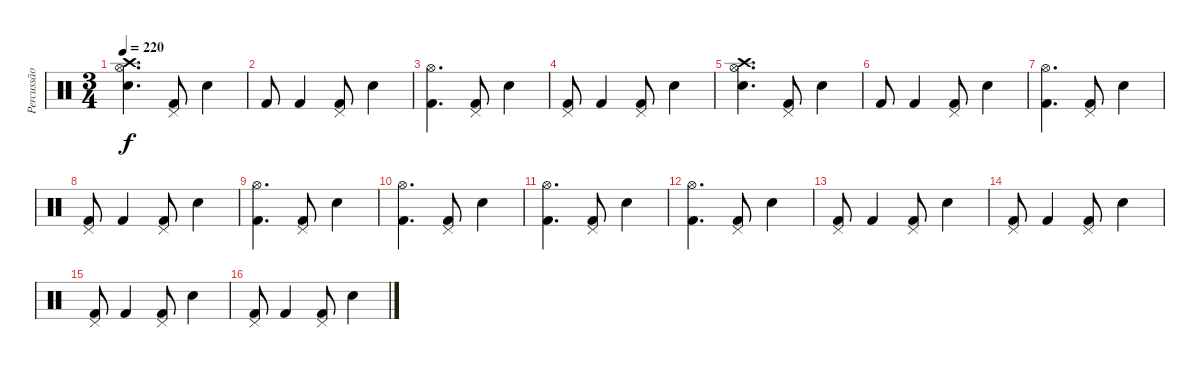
\track ("Percussão" "Percussão") {instrument percussion}
\staff {score}
\articulation defaults
\ts (3 4)
\tempo 220
\clef neutral
\ks c
("Hi-Hat (open)" "Snare (hit) 2" "Crash high (hit)").4{d dy f} ("Pedal Hi-Hat (hit)" "Kick (hit) 2").8 "Snare (hit) 2".4 |
"Kick (hit) 2".8 "Kick (hit) 2".4 ("Pedal Hi-Hat (hit)" "Kick (hit) 2").8 "Snare (hit) 2".4 |
("Hi-Hat (open)" "Kick (hit) 2").4{d} ("Pedal Hi-Hat (hit)" "Kick (hit) 2").8 "Snare (hit) 2".4 |
("Pedal Hi-Hat (hit)" "Kick (hit) 2").8 "Kick (hit) 2".4 ("Pedal Hi-Hat (hit)" "Kick (hit) 2").8 "Snare (hit) 2".4 |
("Hi-Hat (open)" "Snare (hit) 2" "Crash high (hit)").4{d} ("Pedal Hi-Hat (hit)" "Kick (hit) 2").8 "Snare (hit) 2".4 |
"Kick (hit) 2".8 "Kick (hit) 2".4 ("Pedal Hi-Hat (hit)" "Kick (hit) 2").8 "Snare (hit) 2".4 |
("Hi-Hat (open)" "Kick (hit) 2").4{d} ("Pedal Hi-Hat (hit)" "Kick (hit) 2").8 "Snare (hit) 2".4 |
("Pedal Hi-Hat (hit)" "Kick (hit) 2").8 "Kick (hit) 2".4 ("Pedal Hi-Hat (hit)" "Kick (hit) 2").8 "Snare (hit) 2".4 |
("Hi-Hat (open)" "Kick (hit) 2").4{d} ("Pedal Hi-Hat (hit)" "Kick (hit) 2").8 "Snare (hit) 2".4 |
("Hi-Hat (open)" "Kick (hit) 2").4{d} ("Pedal Hi-Hat (hit)" "Kick (hit) 2").8 "Snare (hit) 2".4 |
("Hi-Hat (open)" "Kick (hit) 2").4{d} ("Pedal Hi-Hat (hit)" "Kick (hit) 2").8 "Snare (hit) 2".4 |
("Hi-Hat (open)" "Kick (hit) 2").4{d} ("Pedal Hi-Hat (hit)" "Kick (hit) 2").8 "Snare (hit) 2".4 |
("Pedal Hi-Hat (hit)" "Kick (hit) 2").8 "Kick (hit) 2".4 ("Pedal Hi-Hat (hit)" "Kick (hit) 2").8 "Snare (hit) 2".4 |
("Pedal Hi-Hat (hit)" "Kick (hit) 2").8 "Kick (hit) 2".4 ("Pedal Hi-Hat (hit)" "Kick (hit) 2").8 "Snare (hit) 2".4 |
("Pedal Hi-Hat (hit)" "Kick (hit) 2").8 "Kick (hit) 2".4 ("Pedal Hi-Hat (hit)" "Kick (hit) 2").8 "Snare (hit) 2".4 |
("Pedal Hi-Hat (hit)" "Kick (hit) 2").8 "Kick (hit) 2".4 ("Pedal Hi-Hat (hit)" "Kick (hit) 2").8 "Snare (hit) 2".4
